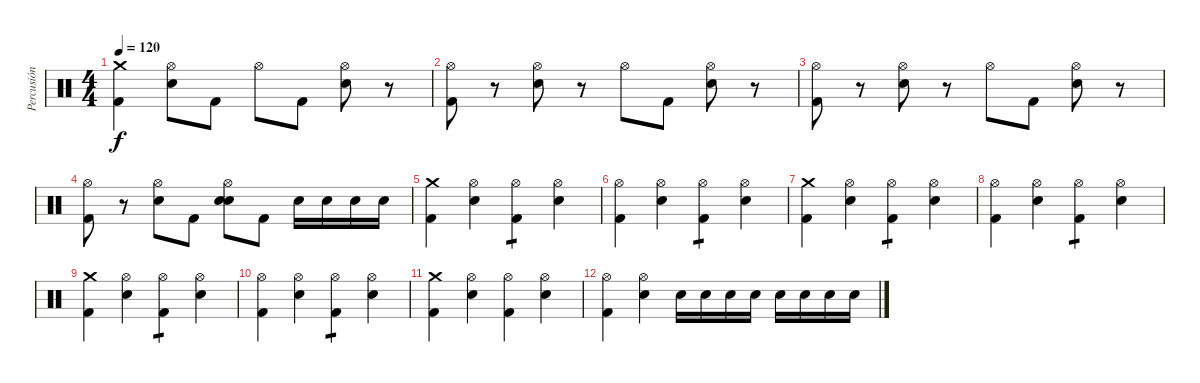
\track ("Percusión" "Percusión") {instrument percussion}
\staff {score}
\articulation defaults
\ts (4 4)
\tempo 120
\clef neutral
\ks c
("Crash medium (hit)" "Kick (hit) 2").4{dy f} ("Hi-Hat (open)" "Electric Snare (hit)").8 "Kick (hit) 2".8 "Hi-Hat (open)".8 "Kick (hit) 2".8 ("Hi-Hat (open)" "Electric Snare (hit)").8 r.8 |
("Hi-Hat (open)" "Kick (hit) 2").8 r.8 ("Hi-Hat (open)" "Electric Snare (hit)").8 r.8 "Hi-Hat (open)".8 "Kick (hit) 2".8 ("Hi-Hat (open)" "Electric Snare (hit)").8 r.8 |
("Hi-Hat (open)" "Kick (hit) 2").8 r.8 ("Hi-Hat (open)" "Electric Snare (hit)").8 r.8 "Hi-Hat (open)".8 "Kick (hit) 2".8 ("Hi-Hat (open)" "Electric Snare (hit)").8 r.8 |
("Hi-Hat (open)" "Kick (hit) 2").8 r.8 ("Hi-Hat (open)" "Electric Snare (hit)").8 "Kick (hit) 2".8 ("Hi-Hat (open)" "Electric Snare (hit)" "Electric Snare (hit)").8 "Kick (hit) 2".8 "Electric Snare (hit)".16 "Electric Snare (hit)".16 "Electric Snare (hit)".16 "Electric Snare (hit)".16 |
("Crash medium (hit)" "Kick (hit) 2").4 ("Hi-Hat (open)" "Electric Snare (hit)").4 ("Hi-Hat (open)" "Kick (hit) 2").4{tp 1} ("Hi-Hat (open)" "Electric Snare (hit)").4 |
("Hi-Hat (open)" "Kick (hit) 2").4 ("Hi-Hat (open)" "Electric Snare (hit)").4 ("Hi-Hat (open)" "Kick (hit) 2").4{tp 1} ("Hi-Hat (open)" "Electric Snare (hit)").4 |
("Crash medium (hit)" "Kick (hit) 2").4 ("Hi-Hat (open)" "Electric Snare (hit)").4 ("Hi-Hat (open)" "Kick (hit) 2").4{tp 1} ("Hi-Hat (open)" "Electric Snare (hit)").4 |
("Hi-Hat (open)" "Kick (hit) 2").4 ("Hi-Hat (open)" "Electric Snare (hit)").4 ("Hi-Hat (open)" "Kick (hit) 2").4{tp 1} ("Hi-Hat (open)" "Electric Snare (hit)").4 |
("Crash medium (hit)" "Kick (hit) 2").4 ("Hi-Hat (open)" "Electric Snare (hit)").4 ("Hi-Hat (open)" "Kick (hit) 2").4{tp 1} ("Hi-Hat (open)" "Electric Snare (hit)").4 |
("Hi-Hat (open)" "Kick (hit) 2").4 ("Hi-Hat (open)" "Electric Snare (hit)").4 ("Hi-Hat (open)" "Kick (hit) 2").4{tp 1} ("Hi-Hat (open)" "Electric Snare (hit)").4 |
("Crash medium (hit)" "Kick (hit) 2").4 ("Hi-Hat (open)" "Electric Snare (hit)").4 ("Hi-Hat (open)" "Kick (hit) 2").4 ("Hi-Hat (open)" "Electric Snare (hit)").4 |
("Hi-Hat (open)" "Kick (hit) 2").4 ("Hi-Hat (open)" "Electric Snare (hit)").4 "Electric Snare (hit)".16 "Electric Snare (hit)".16 "Electric Snare (hit)".16 "Electric Snare (hit)".16 "Electric Snare (hit)".16 "Electric Snare (hit)".16 "Electric Snare (hit)".16 "Electric Snare (hit)".16
